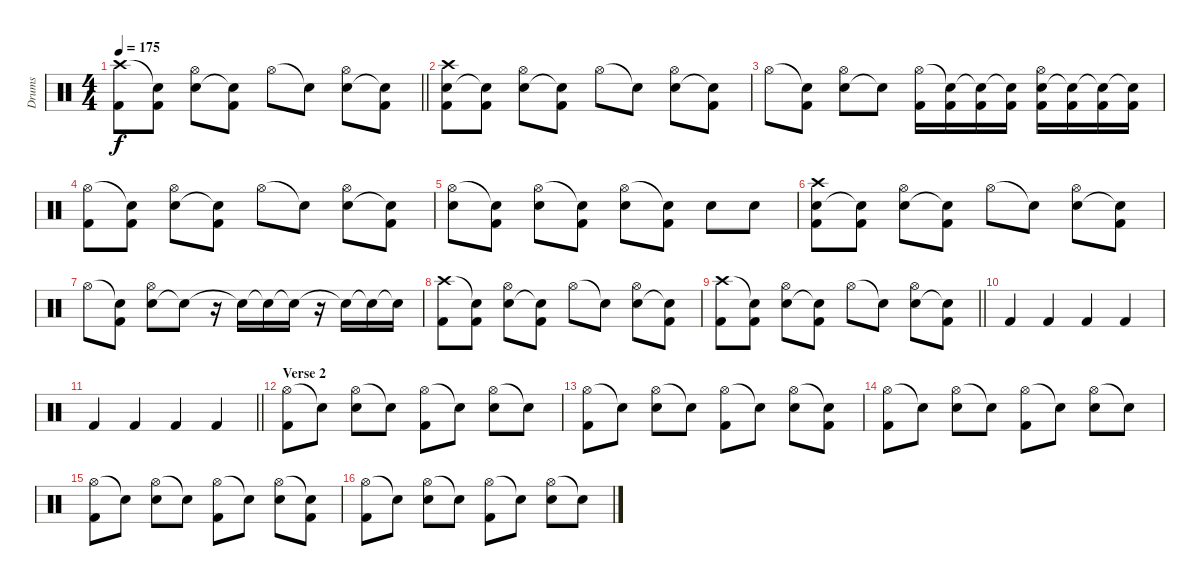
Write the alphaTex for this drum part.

\track ("Drums" "Drums") {instrument percussion}
\staff {score}
\articulation defaults
\ts (4 4)
\tempo 175
\clef neutral
\barLineRight lightlight
\ks c
("Crash high (hit)" "Kick (hit) 2").8{dy f} ("Snare (hit)"{t} "Kick (hit) 2").8 ("Snare (hit) 2" "Hi-Hat (open)").8 ("Snare (hit)"{t} "Kick (hit) 2").8 "Hi-Hat (open)".8 "Snare (hit)"{t}.8 ("Snare (hit) 2" "Hi-Hat (open)").8 ("Snare (hit)"{t} "Kick (hit) 2").8 |
("Snare (hit) 2" "Crash high (hit)" "Kick (hit) 2").8 ("Snare (hit)"{t} "Kick (hit) 2").8 ("Snare (hit) 2" "Hi-Hat (open)").8 ("Snare (hit)"{t} "Kick (hit) 2").8 "Hi-Hat (open)".8 "Snare (hit)"{t}.8 ("Snare (hit) 2" "Hi-Hat (open)").8 ("Snare (hit)"{t} "Kick (hit) 2").8 |
"Hi-Hat (open)".8 ("Snare (hit)"{t} "Kick (hit) 2").8 ("Snare (hit) 2" "Hi-Hat (open)").8 "Snare (hit)"{t}.8 ("Hi-Hat (open)" "Kick (hit) 2").16 ("Snare (hit)"{t} "Kick (hit) 2").16 ("Snare (hit)"{t} "Kick (hit) 2").16 ("Snare (hit)"{t} "Kick (hit) 2").16 ("Snare (hit) 2" "Hi-Hat (open)" "Kick (hit) 2").16 ("Snare (hit)"{t} "Kick (hit) 2").16 ("Snare (hit)"{t} "Kick (hit) 2").16 ("Snare (hit)"{t} "Kick (hit) 2").16 |
("Hi-Hat (open)" "Kick (hit) 2").8 ("Snare (hit)"{t} "Kick (hit) 2").8 ("Snare (hit) 2" "Hi-Hat (open)").8 ("Snare (hit)"{t} "Kick (hit) 2").8 "Hi-Hat (open)".8 "Snare (hit)"{t}.8 ("Snare (hit) 2" "Hi-Hat (open)").8 ("Snare (hit)"{t} "Kick (hit) 2").8 |
("Hi-Hat (open)" "Snare (hit) 2").8 ("Snare (hit)"{t} "Kick (hit) 2").8 ("Hi-Hat (open)" "Snare (hit) 2").8 ("Snare (hit)"{t} "Kick (hit) 2").8 ("Hi-Hat (open)" "Snare (hit) 2").8 ("Snare (hit)"{t} "Kick (hit) 2").8 "Snare (hit) 2".8 "Snare (hit) 2".8 |
("Snare (hit) 2" "Crash high (hit)" "Kick (hit) 2").8 ("Snare (hit)"{t} "Kick (hit) 2").8 ("Snare (hit) 2" "Hi-Hat (open)").8 ("Snare (hit)"{t} "Kick (hit) 2").8 "Hi-Hat (open)".8 "Snare (hit)"{t}.8 ("Snare (hit) 2" "Hi-Hat (open)").8 ("Snare (hit)"{t} "Kick (hit) 2").8 |
"Hi-Hat (open)".8 ("Snare (hit)"{t} "Kick (hit) 2").8 ("Snare (hit) 2" "Hi-Hat (open)").8 "Snare (hit)"{t}.8 r.16 "Snare (hit)"{t}.16 "Snare (hit)"{t}.16 "Snare (hit)"{t}.16 r.16 "Snare (hit)"{t}.16 "Snare (hit)"{t}.16 "Snare (hit)"{t}.16 |
("Crash high (hit)" "Kick (hit) 2").8 ("Snare (hit)"{t} "Kick (hit) 2").8 ("Snare (hit) 2" "Hi-Hat (open)").8 ("Snare (hit)"{t} "Kick (hit) 2").8 "Hi-Hat (open)".8 "Snare (hit)"{t}.8 ("Snare (hit) 2" "Hi-Hat (open)").8 ("Snare (hit)"{t} "Kick (hit) 2").8 |
\barLineRight lightlight
("Crash high (hit)" "Kick (hit) 2").8 ("Snare (hit)"{t} "Kick (hit) 2").8 ("Snare (hit) 2" "Hi-Hat (open)").8 ("Snare (hit)"{t} "Kick (hit) 2").8 "Hi-Hat (open)".8 "Snare (hit)"{t}.8 ("Snare (hit) 2" "Hi-Hat (open)").8 ("Snare (hit)"{t} "Kick (hit) 2").8 |
\section ("" "")
"Kick (hit) 2".4 "Kick (hit) 2".4 "Kick (hit) 2".4 "Kick (hit) 2".4 |
\barLineRight lightlight "Kick (hit) 2".4 "Kick (hit) 2".4 "Kick (hit) 2".4 "Kick (hit) 2".4
|
\section ("" "Verse 2")
("Hi-Hat (open)" "Kick (hit) 2").8 "Snare (hit)"{t}.8 ("Hi-Hat (open)" "Electric Snare (hit)").8 "Snare (hit)"{t}.8 ("Hi-Hat (open)" "Kick (hit) 2").8 "Snare (hit)"{t}.8 ("Hi-Hat (open)" "Electric Snare (hit)").8 "Snare (hit)"{t}.8 |
("Hi-Hat (open)" "Kick (hit) 2").8 "Snare (hit)"{t}.8 ("Hi-Hat (open)" "Electric Snare (hit)").8 "Snare (hit)"{t}.8 ("Hi-Hat (open)" "Kick (hit) 2").8 "Snare (hit)"{t}.8 ("Hi-Hat (open)" "Electric Snare (hit)").8 ("Snare (hit)"{t} "Kick (hit) 2").8 |
("Hi-Hat (open)" "Kick (hit) 2").8 "Snare (hit)"{t}.8 ("Hi-Hat (open)" "Electric Snare (hit)").8 "Snare (hit)"{t}.8 ("Hi-Hat (open)" "Kick (hit) 2").8 "Snare (hit)"{t}.8 ("Hi-Hat (open)" "Electric Snare (hit)").8 "Snare (hit)"{t}.8 |
("Hi-Hat (open)" "Kick (hit) 2").8 "Snare (hit)"{t}.8 ("Hi-Hat (open)" "Electric Snare (hit)").8 "Snare (hit)"{t}.8 ("Hi-Hat (open)" "Kick (hit) 2").8 "Snare (hit)"{t}.8 ("Hi-Hat (open)" "Electric Snare (hit)").8 ("Snare (hit)"{t} "Kick (hit) 2").8 |
("Hi-Hat (open)" "Kick (hit) 2").8 "Snare (hit)"{t}.8 ("Hi-Hat (open)" "Electric Snare (hit)").8 "Snare (hit)"{t}.8 ("Hi-Hat (open)" "Kick (hit) 2").8 "Snare (hit)"{t}.8 ("Hi-Hat (open)" "Electric Snare (hit)").8 "Snare (hit)"{t}.8
